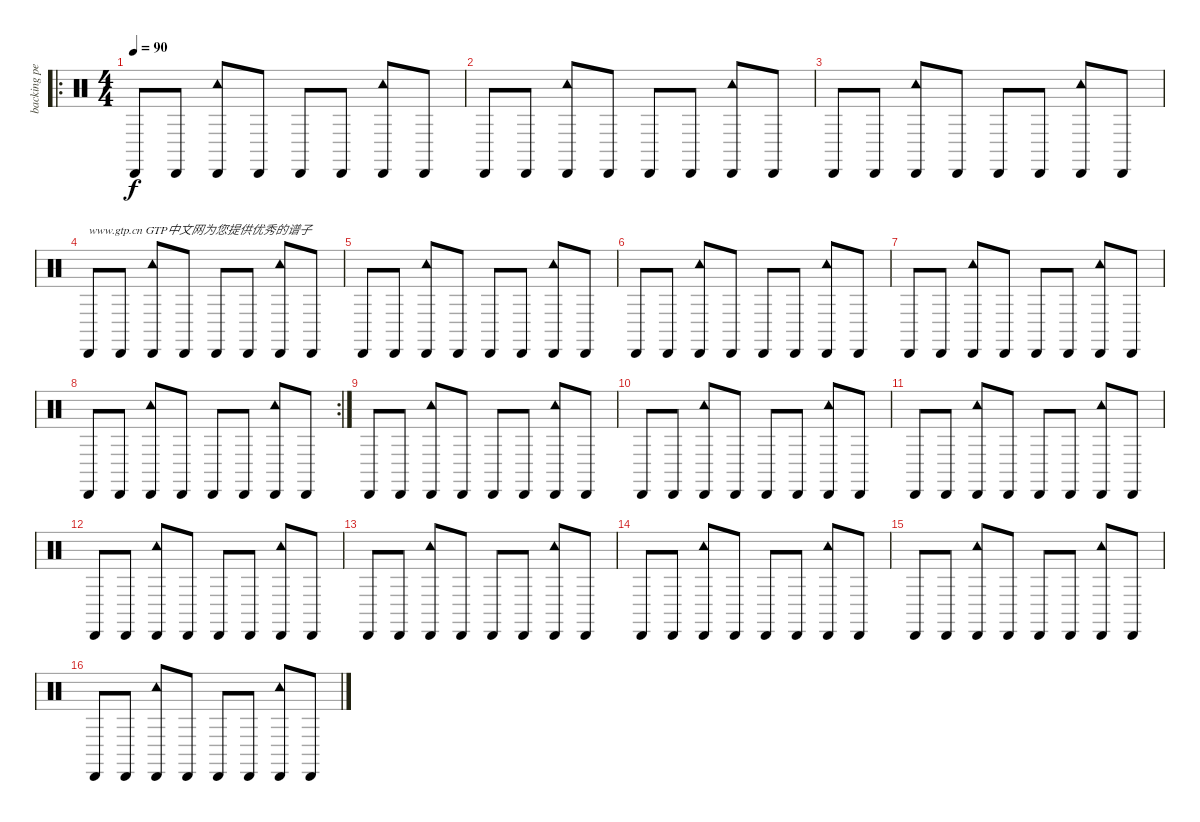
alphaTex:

\track ("backing percussion" "backing pe") {instrument percussion}
\staff {score}
\articulation defaults
\ro
\ts (4 4)
\tempo 90
\clef neutral
\ks c "Cabasa (hit)".8{dy f} "Cabasa (hit)".8
("Cabasa (hit)" "Tambourine (hit)").8 "Cabasa (hit)".8 "Cabasa (hit)".8 "Cabasa (hit)".8 ("Cabasa (hit)" "Tambourine (hit)").8 "Cabasa (hit)".8 |
"Cabasa (hit)".8 "Cabasa (hit)".8 ("Cabasa (hit)" "Tambourine (hit)").8 "Cabasa (hit)".8 "Cabasa (hit)".8 "Cabasa (hit)".8 ("Cabasa (hit)" "Tambourine (hit)").8 "Cabasa (hit)".8 |
"Cabasa (hit)".8 "Cabasa (hit)".8 ("Cabasa (hit)" "Tambourine (hit)").8 "Cabasa (hit)".8 "Cabasa (hit)".8 "Cabasa (hit)".8 ("Cabasa (hit)" "Tambourine (hit)").8 "Cabasa (hit)".8 |
"Cabasa (hit)".8{txt "www.gtp.cn GTP中文网为您提供优秀的谱子"} "Cabasa (hit)".8 ("Cabasa (hit)" "Tambourine (hit)").8 "Cabasa (hit)".8 "Cabasa (hit)".8 "Cabasa (hit)".8 ("Cabasa (hit)" "Tambourine (hit)").8 "Cabasa (hit)".8 |
"Cabasa (hit)".8 "Cabasa (hit)".8 ("Cabasa (hit)" "Tambourine (hit)").8 "Cabasa (hit)".8 "Cabasa (hit)".8 "Cabasa (hit)".8 ("Cabasa (hit)" "Tambourine (hit)").8 "Cabasa (hit)".8 |
"Cabasa (hit)".8 "Cabasa (hit)".8 ("Cabasa (hit)" "Tambourine (hit)").8 "Cabasa (hit)".8 "Cabasa (hit)".8 "Cabasa (hit)".8 ("Cabasa (hit)" "Tambourine (hit)").8 "Cabasa (hit)".8 |
"Cabasa (hit)".8 "Cabasa (hit)".8 ("Cabasa (hit)" "Tambourine (hit)").8 "Cabasa (hit)".8 "Cabasa (hit)".8 "Cabasa (hit)".8 ("Cabasa (hit)" "Tambourine (hit)").8 "Cabasa (hit)".8 |
\rc 2 "Cabasa (hit)".8 "Cabasa (hit)".8
("Cabasa (hit)" "Tambourine (hit)").8 "Cabasa (hit)".8 "Cabasa (hit)".8 "Cabasa (hit)".8 ("Cabasa (hit)" "Tambourine (hit)").8 "Cabasa (hit)".8 |
"Cabasa (hit)".8 "Cabasa (hit)".8 ("Cabasa (hit)" "Tambourine (hit)").8 "Cabasa (hit)".8 "Cabasa (hit)".8 "Cabasa (hit)".8 ("Cabasa (hit)" "Tambourine (hit)").8 "Cabasa (hit)".8 |
"Cabasa (hit)".8 "Cabasa (hit)".8 ("Cabasa (hit)" "Tambourine (hit)").8 "Cabasa (hit)".8 "Cabasa (hit)".8 "Cabasa (hit)".8 ("Cabasa (hit)" "Tambourine (hit)").8 "Cabasa (hit)".8 |
"Cabasa (hit)".8 "Cabasa (hit)".8 ("Cabasa (hit)" "Tambourine (hit)").8 "Cabasa (hit)".8 "Cabasa (hit)".8 "Cabasa (hit)".8 ("Cabasa (hit)" "Tambourine (hit)").8 "Cabasa (hit)".8 |
"Cabasa (hit)".8 "Cabasa (hit)".8 ("Cabasa (hit)" "Tambourine (hit)").8 "Cabasa (hit)".8 "Cabasa (hit)".8 "Cabasa (hit)".8 ("Cabasa (hit)" "Tambourine (hit)").8 "Cabasa (hit)".8 |
"Cabasa (hit)".8 "Cabasa (hit)".8 ("Cabasa (hit)" "Tambourine (hit)").8 "Cabasa (hit)".8 "Cabasa (hit)".8 "Cabasa (hit)".8 ("Cabasa (hit)" "Tambourine (hit)").8 "Cabasa (hit)".8 |
"Cabasa (hit)".8 "Cabasa (hit)".8 ("Cabasa (hit)" "Tambourine (hit)").8 "Cabasa (hit)".8 "Cabasa (hit)".8 "Cabasa (hit)".8 ("Cabasa (hit)" "Tambourine (hit)").8 "Cabasa (hit)".8 |
"Cabasa (hit)".8 "Cabasa (hit)".8 ("Cabasa (hit)" "Tambourine (hit)").8 "Cabasa (hit)".8 "Cabasa (hit)".8 "Cabasa (hit)".8 ("Cabasa (hit)" "Tambourine (hit)").8 "Cabasa (hit)".8 |
"Cabasa (hit)".8 "Cabasa (hit)".8 ("Cabasa (hit)" "Tambourine (hit)").8 "Cabasa (hit)".8 "Cabasa (hit)".8 "Cabasa (hit)".8 ("Cabasa (hit)" "Tambourine (hit)").8 "Cabasa (hit)".8
